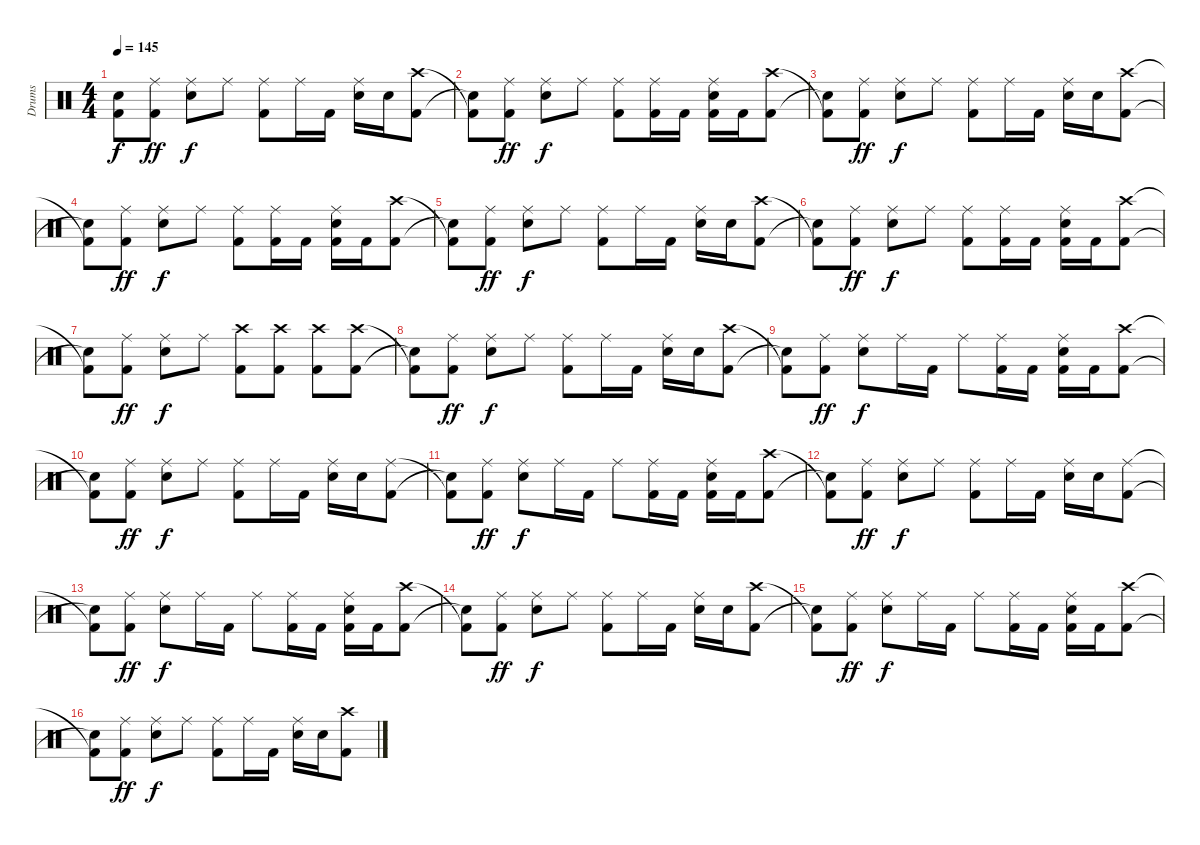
\track ("Drums" "Drums") {instrument percussion}
\staff {score}
\articulation defaults
\ts (4 4)
\tempo 145
\clef neutral
\ks c
("Kick (hit) 2"{t} "Snare (hit)"{t}).8{dy f} ("Ride (middle)" "Kick (hit) 2").8{dy ff} ("Ride (middle)" "Snare (hit) 2").8{dy f} "Ride (middle)".8 ("Ride (middle)" "Kick (hit) 2").8 "Ride (middle)".16 "Kick (hit) 2".16 ("Ride (middle)" "Snare (hit) 2").16 "Snare (hit) 2".16 ("Crash high (hit)" "Kick (hit) 2").8 |
("Kick (hit) 2"{t} "Snare (hit)"{t}).8 ("Ride (middle)" "Kick (hit) 2").8{dy ff} ("Ride (middle)" "Snare (hit) 2").8{dy f} "Ride (middle)".8 ("Ride (middle)" "Kick (hit) 2").8 ("Ride (middle)" "Kick (hit) 2").16 "Kick (hit) 2".16 ("Ride (middle)" "Snare (hit) 2" "Kick (hit) 2").16 "Kick (hit) 2".16 ("Crash high (hit)" "Kick (hit) 2").8 |
("Kick (hit) 2"{t} "Snare (hit)"{t}).8 ("Ride (middle)" "Kick (hit) 2").8{dy ff} ("Ride (middle)" "Snare (hit) 2").8{dy f} "Ride (middle)".8 ("Ride (middle)" "Kick (hit) 2").8 "Ride (middle)".16 "Kick (hit) 2".16 ("Ride (middle)" "Snare (hit) 2").16 "Snare (hit) 2".16 ("Crash high (hit)" "Kick (hit) 2").8 |
("Kick (hit) 2"{t} "Snare (hit)"{t}).8 ("Ride (middle)" "Kick (hit) 2").8{dy ff} ("Ride (middle)" "Snare (hit) 2").8{dy f} "Ride (middle)".8 ("Ride (middle)" "Kick (hit) 2").8 ("Ride (middle)" "Kick (hit) 2").16 "Kick (hit) 2".16 ("Ride (middle)" "Snare (hit) 2" "Kick (hit) 2").16 "Kick (hit) 2".16 ("Crash high (hit)" "Kick (hit) 2").8 |
("Kick (hit) 2"{t} "Snare (hit)"{t}).8 ("Ride (middle)" "Kick (hit) 2").8{dy ff} ("Ride (middle)" "Snare (hit) 2").8{dy f} "Ride (middle)".8 ("Ride (middle)" "Kick (hit) 2").8 "Ride (middle)".16 "Kick (hit) 2".16 ("Ride (middle)" "Snare (hit) 2").16 "Snare (hit) 2".16 ("Crash high (hit)" "Kick (hit) 2").8 |
("Kick (hit) 2"{t} "Snare (hit)"{t}).8 ("Ride (middle)" "Kick (hit) 2").8{dy ff} ("Ride (middle)" "Snare (hit) 2").8{dy f} "Ride (middle)".8 ("Ride (middle)" "Kick (hit) 2").8 ("Ride (middle)" "Kick (hit) 2").16 "Kick (hit) 2".16 ("Ride (middle)" "Snare (hit) 2" "Kick (hit) 2").16 "Kick (hit) 2".16 ("Crash high (hit)" "Kick (hit) 2").8 |
("Kick (hit) 2"{t} "Snare (hit)"{t}).8 ("Ride (middle)" "Kick (hit) 2").8{dy ff} ("Ride (middle)" "Snare (hit) 2").8{dy f} "Ride (middle)".8 ("Crash high (hit)" "Kick (hit) 2").8 ("Crash high (hit)" "Kick (hit) 2").8 ("Crash high (hit)" "Kick (hit) 2").8 ("Crash high (hit)" "Kick (hit) 2").8 |
("Kick (hit) 2"{t} "Snare (hit)"{t}).8 ("Ride (middle)" "Kick (hit) 2").8{dy ff} ("Ride (middle)" "Snare (hit) 2").8{dy f} "Ride (middle)".8 ("Ride (middle)" "Kick (hit) 2").8 "Ride (middle)".16 "Kick (hit) 2".16 ("Ride (middle)" "Snare (hit) 2").16 "Snare (hit) 2".16 ("Crash high (hit)" "Kick (hit) 2").8 |
("Kick (hit) 2"{t} "Snare (hit)"{t}).8 ("Ride (middle)" "Kick (hit) 2").8{dy ff} ("Ride (middle)" "Snare (hit) 2").8{dy f} "Ride (middle)".16 "Kick (hit) 2".16 "Ride (middle)".8 ("Ride (middle)" "Kick (hit) 2").16 "Kick (hit) 2".16 ("Ride (middle)" "Snare (hit) 2" "Kick (hit) 2").16 "Kick (hit) 2".16 ("Crash high (hit)" "Kick (hit) 2").8 |
("Kick (hit) 2"{t} "Snare (hit)"{t}).8 ("Ride (middle)" "Kick (hit) 2").8{dy ff} ("Ride (middle)" "Snare (hit) 2").8{dy f} "Ride (middle)".8 ("Ride (middle)" "Kick (hit) 2").8 "Ride (middle)".16 "Kick (hit) 2".16 ("Ride (middle)" "Snare (hit) 2").16 "Snare (hit) 2".16 ("Ride (middle)" "Kick (hit) 2").8 |
("Kick (hit) 2"{t} "Snare (hit)"{t}).8 ("Ride (middle)" "Kick (hit) 2").8{dy ff} ("Ride (middle)" "Snare (hit) 2").8{dy f} "Ride (middle)".16 "Kick (hit) 2".16 "Ride (middle)".8 ("Ride (middle)" "Kick (hit) 2").16 "Kick (hit) 2".16 ("Ride (middle)" "Snare (hit) 2" "Kick (hit) 2").16 "Kick (hit) 2".16 ("Crash high (hit)" "Kick (hit) 2").8 |
("Kick (hit) 2"{t} "Snare (hit)"{t}).8 ("Ride (middle)" "Kick (hit) 2").8{dy ff} ("Ride (middle)" "Snare (hit) 2").8{dy f} "Ride (middle)".8 ("Ride (middle)" "Kick (hit) 2").8 "Ride (middle)".16 "Kick (hit) 2".16 ("Ride (middle)" "Snare (hit) 2").16 "Snare (hit) 2".16 ("Ride (middle)" "Kick (hit) 2").8 |
("Kick (hit) 2"{t} "Snare (hit)"{t}).8 ("Ride (middle)" "Kick (hit) 2").8{dy ff} ("Ride (middle)" "Snare (hit) 2").8{dy f} "Ride (middle)".16 "Kick (hit) 2".16 "Ride (middle)".8 ("Ride (middle)" "Kick (hit) 2").16 "Kick (hit) 2".16 ("Ride (middle)" "Snare (hit) 2" "Kick (hit) 2").16 "Kick (hit) 2".16 ("Crash high (hit)" "Kick (hit) 2").8 |
("Kick (hit) 2"{t} "Snare (hit)"{t}).8 ("Ride (middle)" "Kick (hit) 2").8{dy ff} ("Ride (middle)" "Snare (hit) 2").8{dy f} "Ride (middle)".8 ("Ride (middle)" "Kick (hit) 2").8 "Ride (middle)".16 "Kick (hit) 2".16 ("Ride (middle)" "Snare (hit) 2").16 "Snare (hit) 2".16 ("Crash high (hit)" "Kick (hit) 2").8 |
("Kick (hit) 2"{t} "Snare (hit)"{t}).8 ("Ride (middle)" "Kick (hit) 2").8{dy ff} ("Ride (middle)" "Snare (hit) 2").8{dy f} "Ride (middle)".16 "Kick (hit) 2".16 "Ride (middle)".8 ("Ride (middle)" "Kick (hit) 2").16 "Kick (hit) 2".16 ("Ride (middle)" "Snare (hit) 2" "Kick (hit) 2").16 "Kick (hit) 2".16 ("Crash high (hit)" "Kick (hit) 2").8 |
("Kick (hit) 2"{t} "Snare (hit)"{t}).8 ("Ride (middle)" "Kick (hit) 2").8{dy ff} ("Ride (middle)" "Snare (hit) 2").8{dy f} "Ride (middle)".8 ("Ride (middle)" "Kick (hit) 2").8 "Ride (middle)".16 "Kick (hit) 2".16 ("Ride (middle)" "Snare (hit) 2").16 "Snare (hit) 2".16 ("Crash high (hit)" "Kick (hit) 2").8
